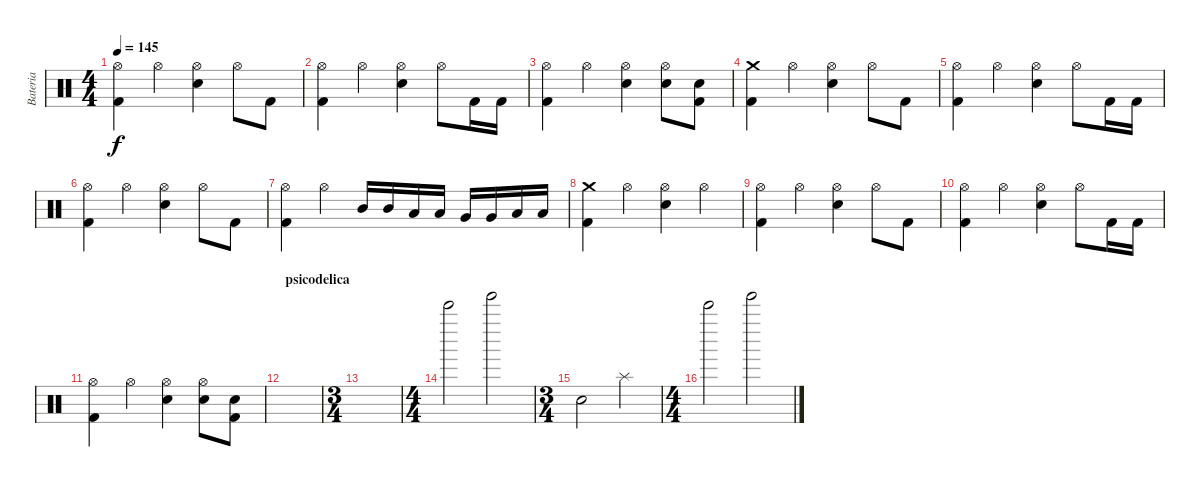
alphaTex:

\track ("Bateria" "Bateria") {instrument percussion}
\staff {score}
\articulation defaults
\ts (4 4)
\tempo 145
\clef neutral
\ks c
("Hi-Hat (open)" "Kick (hit) 2").4{dy f} "Hi-Hat (open)".4 ("Hi-Hat (open)" "Snare (hit) 2").4 "Hi-Hat (open)".8 "Kick (hit) 2".8 |
("Hi-Hat (open)" "Kick (hit) 2").4 "Hi-Hat (open)".4 ("Hi-Hat (open)" "Snare (hit) 2").4 "Hi-Hat (open)".8 "Kick (hit) 2".16 "Kick (hit) 2".16 |
("Hi-Hat (open)" "Kick (hit) 2").4 "Hi-Hat (open)".4 ("Hi-Hat (open)" "Snare (hit) 2").4 ("Hi-Hat (open)" "Snare (hit) 2").8 ("Snare (hit) 2" "Kick (hit) 2").8 |
("Crash medium (hit)" "Kick (hit) 2").4 "Hi-Hat (open)".4 ("Hi-Hat (open)" "Snare (hit) 2").4 "Hi-Hat (open)".8 "Kick (hit) 2".8 |
("Hi-Hat (open)" "Kick (hit) 2").4 "Hi-Hat (open)".4 ("Hi-Hat (open)" "Snare (hit) 2").4 "Hi-Hat (open)".8 "Kick (hit) 2".16 "Kick (hit) 2".16 |
("Hi-Hat (open)" "Kick (hit) 2").4 "Hi-Hat (open)".4 ("Hi-Hat (open)" "Snare (hit) 2").4 "Hi-Hat (open)".8 "Kick (hit) 2".8 |
("Hi-Hat (open)" "Kick (hit) 2").4 "Hi-Hat (open)".4 "Mid Tom (hit)".16 "Mid Tom (hit)".16 "Low Tom (hit)".16 "Low Tom (hit)".16 "Very Low Tom (hit)".16 "Very Low Tom (hit)".16 "Low Floor Tom (hit)".16 "Low Floor Tom (hit)".16 |
("Crash medium (hit)" "Kick (hit) 2").4 "Hi-Hat (open)".4 ("Hi-Hat (open)" "Snare (hit) 2").4 "Hi-Hat (open)".4 |
("Hi-Hat (open)" "Kick (hit) 2").4 "Hi-Hat (open)".4 ("Hi-Hat (open)" "Snare (hit) 2").4 "Hi-Hat (open)".8 "Kick (hit) 2".8 |
("Hi-Hat (open)" "Kick (hit) 2").4 "Hi-Hat (open)".4 ("Hi-Hat (open)" "Snare (hit) 2").4 "Hi-Hat (open)".8 "Kick (hit) 2".16 "Kick (hit) 2".16 |
("Hi-Hat (open)" "Kick (hit) 2").4 "Hi-Hat (open)".4 ("Hi-Hat (open)" "Snare (hit) 2").4 ("Hi-Hat (open)" "Snare (hit) 2").8 ("Snare (hit) 2" "Kick (hit) 2").8 |
\section ("" "psicodelica")
|
\ts (3 4)
|
\ts (4 4)
"Bell Tree (hit)".2 "Tinkle Bell (hit)".2 |
\ts (3 4)
"Hand Clap (hit)".2 "Splash (hit)".4 |
\ts (4 4)
"Bell Tree (hit)".2 "Tinkle Bell (hit)".2
